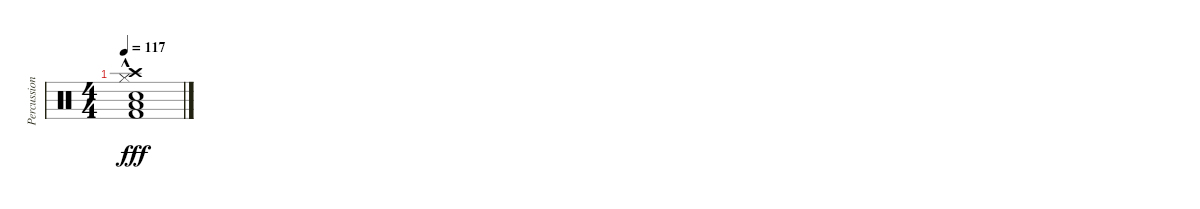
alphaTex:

\track ("Percussion" "Percussion") {instrument percussion}
\staff {score}
\articulation defaults
\ts (4 4)
\tempo 117
\clef neutral
\ks c
("Crash high (hit)"{hac} "Kick (hit) 2"{hac} "Electric Snare (hit)"{hac} "Hi-Hat (closed)"{hac} "Low Floor Tom (hit)"{hac}).1{dy fff}
